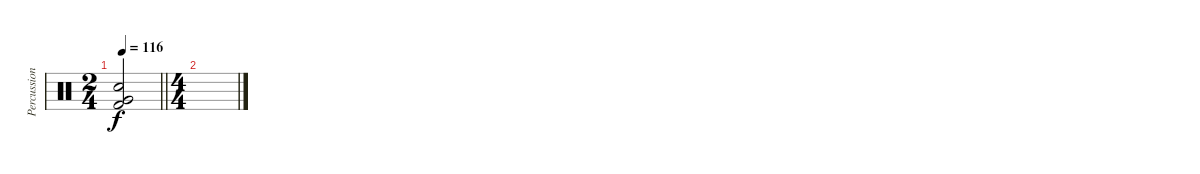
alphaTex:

\track ("Percussion" "Percussion") {instrument percussion}
\staff {score}
\articulation defaults
\ts (2 4)
\tempo 116
\clef neutral
\barLineRight lightlight
\ks c
("Very Low Tom (hit)" "Electric Snare (hit)" "Kick (hit) 2").2{dy f} |
\ts (4 4)
